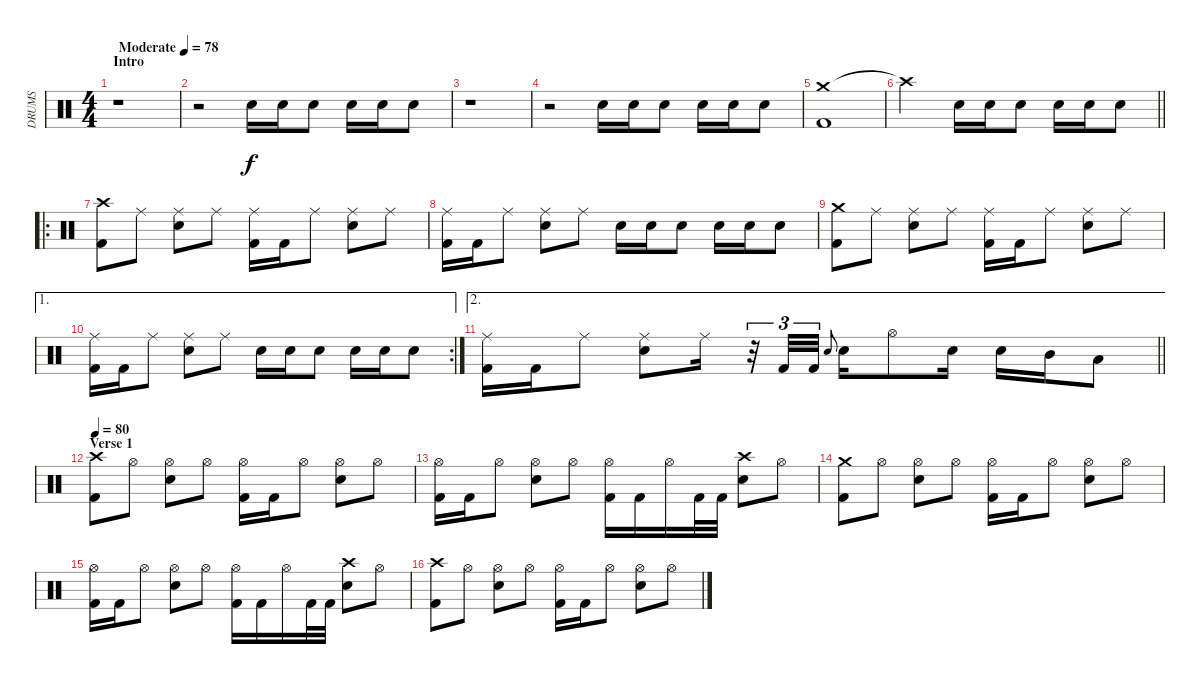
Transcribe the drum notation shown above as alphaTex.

\track ("DRUMS" "DRUMS") {instrument percussion}
\staff {score}
\articulation defaults
\ts (4 4)
\section ("" "Intro")
\tempo (78 "Moderate")
\clef neutral
\ks c
r.1{dy f} |
r.2 "Snare (hit) 2".16 "Snare (hit) 2".16 "Snare (hit) 2".8 "Snare (hit) 2".16 "Snare (hit) 2".16 "Snare (hit) 2".8 |
r.1 |
r.2 "Snare (hit) 2".16 "Snare (hit) 2".16 "Snare (hit) 2".8 "Snare (hit) 2".16 "Snare (hit) 2".16 "Snare (hit) 2".8 |
("Crash medium (hit)" "Kick (hit) 2").1 |
\barLineRight lightlight "Crash high (hit)"{t}.2 "Snare (hit) 2".16 "Snare (hit) 2".16 "Snare (hit) 2".8 "Snare (hit) 2".16 "Snare (hit) 2".16 "Snare (hit) 2".8
|
\ro
("Crash high (hit)" "Kick (hit) 2").8 "Ride (middle)".8 ("Ride (middle)" "Snare (hit) 2").8 "Ride (middle)".8 ("Ride (middle)" "Kick (hit) 2").16 "Kick (hit) 2".16 "Ride (middle)".8 ("Ride (middle)" "Snare (hit) 2").8 "Ride (middle)".8 |
("Ride (middle)" "Kick (hit) 2").16 "Kick (hit) 2".16 "Ride (middle)".8 ("Ride (middle)" "Snare (hit) 2").8 "Ride (middle)".8 "Snare (hit) 2".16 "Snare (hit) 2".16 "Snare (hit) 2".8 "Snare (hit) 2".16 "Snare (hit) 2".16 "Snare (hit) 2".8 |
("Crash medium (hit)" "Kick (hit) 2").8 "Ride (middle)".8 ("Ride (middle)" "Snare (hit) 2").8 "Ride (middle)".8 ("Ride (middle)" "Kick (hit) 2").16 "Kick (hit) 2".16 "Ride (middle)".8 ("Ride (middle)" "Snare (hit) 2").8 "Ride (middle)".8 |
\ae 1
\rc 2
("Ride (middle)" "Kick (hit) 2").16 "Kick (hit) 2".16 "Ride (middle)".8 ("Ride (middle)" "Snare (hit) 2").8 "Ride (middle)".8 "Snare (hit) 2".16 "Snare (hit) 2".16 "Snare (hit) 2".8 "Snare (hit) 2".16 "Snare (hit) 2".16 "Snare (hit) 2".8 |
\ae 2
\barLineRight lightlight
("Ride (middle)" "Kick (hit) 2").16 "Kick (hit) 2".16 "Ride (middle)".8 ("Ride (middle)" "Snare (hit) 2").8 "Ride (middle)".16 r.32{tu (3 2)} "Kick (hit) 2".32{tu (3 2)} "Kick (hit) 2".32{tu (3 2)} "Snare (hit) 2".8{gr onbeat} "Snare (hit) 2".16 "Hi-Hat (open)".8 "Snare (hit) 2".16 "Snare (hit) 2".16 "Mid Tom (hit)".16 "Low Tom (hit)".8 |
\section ("" "Verse 1")
\tempo 80
("Crash high (hit)" "Kick (hit) 2").8 "Hi-Hat (open)".8 ("Hi-Hat (open)" "Snare (hit) 2").8 "Hi-Hat (open)".8 ("Hi-Hat (open)" "Kick (hit) 2").16 "Kick (hit) 2".16 "Hi-Hat (open)".8 ("Hi-Hat (open)" "Snare (hit) 2").8 "Hi-Hat (open)".8 |
("Hi-Hat (open)" "Kick (hit) 2").16 "Kick (hit) 2".16 "Hi-Hat (open)".8 ("Hi-Hat (open)" "Snare (hit) 2").8 "Hi-Hat (open)".8 ("Hi-Hat (open)" "Kick (hit) 2").16 "Kick (hit) 2".16 "Hi-Hat (open)".16 "Kick (hit) 2".32 "Kick (hit) 2".32 ("Crash high (hit)" "Snare (hit) 2").8 "Hi-Hat (open)".8 |
("Crash medium (hit)" "Kick (hit) 2").8 "Hi-Hat (open)".8 ("Hi-Hat (open)" "Snare (hit) 2").8 "Hi-Hat (open)".8 ("Hi-Hat (open)" "Kick (hit) 2").16 "Kick (hit) 2".16 "Hi-Hat (open)".8 ("Hi-Hat (open)" "Snare (hit) 2").8 "Hi-Hat (open)".8 |
("Hi-Hat (open)" "Kick (hit) 2").16 "Kick (hit) 2".16 "Hi-Hat (open)".8 ("Hi-Hat (open)" "Snare (hit) 2").8 "Hi-Hat (open)".8 ("Hi-Hat (open)" "Kick (hit) 2").16 "Kick (hit) 2".16 "Hi-Hat (open)".16 "Kick (hit) 2".32 "Kick (hit) 2".32 ("Crash high (hit)" "Snare (hit) 2").8 "Hi-Hat (open)".8 |
("Crash high (hit)" "Kick (hit) 2").8 "Hi-Hat (open)".8 ("Hi-Hat (open)" "Snare (hit) 2").8 "Hi-Hat (open)".8 ("Hi-Hat (open)" "Kick (hit) 2").16 "Kick (hit) 2".16 "Hi-Hat (open)".8 ("Hi-Hat (open)" "Snare (hit) 2").8 "Hi-Hat (open)".8
